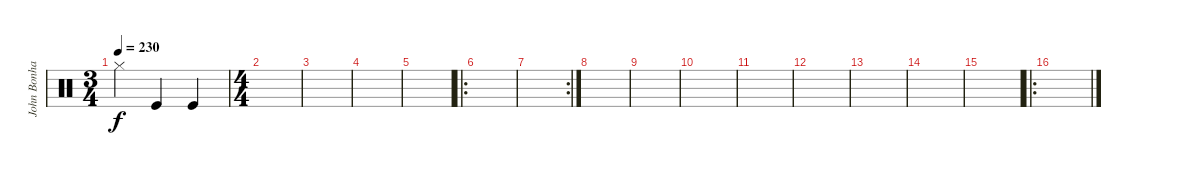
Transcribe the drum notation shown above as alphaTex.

\track ("John Bonham" "John Bonha") {instrument percussion}
\staff {score}
\articulation defaults
\ts (3 4)
\tempo 230
\clef neutral
\ks c "Hi-Hat (closed)".4{dy f} "Kick (hit)".4 "Kick (hit)".4
|
\ts (4 4)
|
|
|
|
\ro
|
\rc 2
|
|
|
|
|
|
|
|
|
\ro
